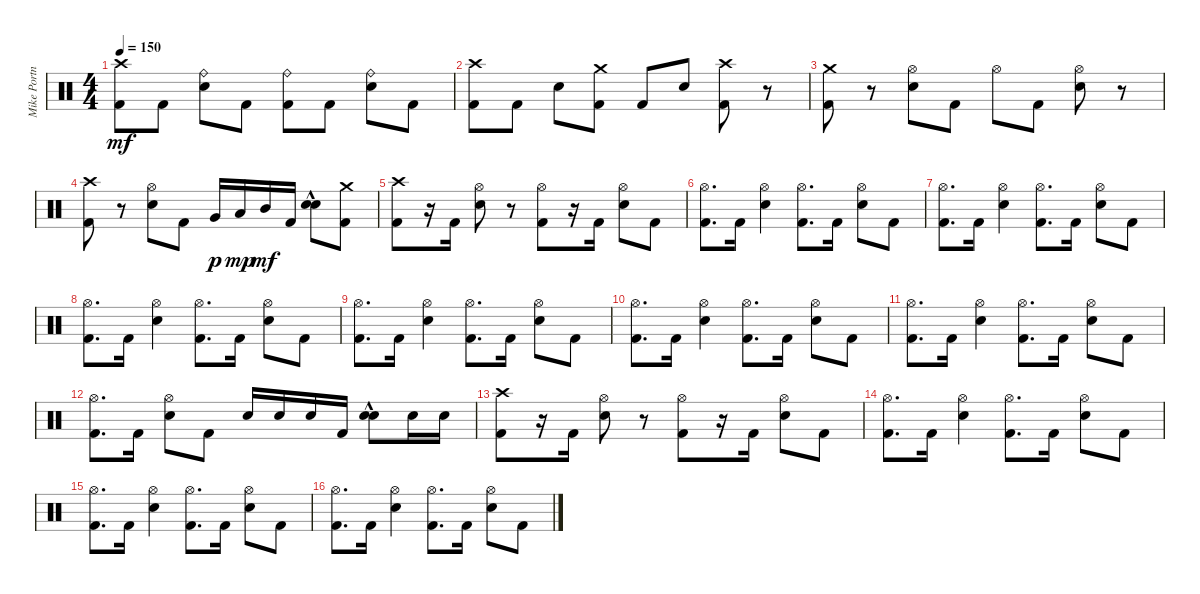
\track ("Mike Portnoy: Drums" "Mike Portn") {instrument percussion}
\staff {score}
\articulation defaults
\ts (4 4)
\tempo 150
\clef neutral
\ks c
("Kick (hit) 2" "Crash high (hit)").8{dy mf} "Kick (hit) 2".8 ("Electric Snare (hit)" "Ride (bell)").8 "Kick (hit) 2".8 ("Kick (hit) 2" "Ride (bell)").8 "Kick (hit) 2".8 ("Electric Snare (hit)" "Ride (bell)").8 "Kick (hit) 2".8 |
("Kick (hit) 2" "Crash high (hit)").8 "Kick (hit) 2".8 "Electric Snare (hit)".8 ("Kick (hit) 2" "Crash medium (hit)").8 "Kick (hit) 2".8 "Electric Snare (hit)".8 ("Kick (hit) 2" "Crash high (hit)").8 r.8 |
("Kick (hit) 2" "Crash medium (hit)").8 r.8 ("Electric Snare (hit)" "Hi-Hat (open)").8 "Kick (hit) 2".8 "Hi-Hat (open)".8 "Kick (hit) 2".8 ("Electric Snare (hit)" "Hi-Hat (open)").8 r.8 |
("Kick (hit) 2" "Crash high (hit)").8 r.8 ("Electric Snare (hit)" "Hi-Hat (open)").8 "Kick (hit) 2".8 "Very Low Tom (hit)".16{dy p} "Low Tom (hit)".16{dy mp} "Mid Tom (hit)".16{dy mf} "Kick (hit) 2".16 ("Electric Snare (hit)" "Electric Snare (hit)"{hac}).8 ("Kick (hit) 2" "Crash medium (hit)").8 |
("Kick (hit) 2" "Crash high (hit)").8 r.16 "Kick (hit) 2".16 ("Electric Snare (hit)" "Hi-Hat (open)").8 r.8 ("Kick (hit) 2" "Hi-Hat (open)").8 r.16 "Kick (hit) 2".16 ("Electric Snare (hit)" "Hi-Hat (open)").8 "Kick (hit) 2".8 |
("Kick (hit) 2" "Hi-Hat (open)").8{d} "Kick (hit) 2".16 ("Electric Snare (hit)" "Hi-Hat (open)").4 ("Kick (hit) 2" "Hi-Hat (open)").8{d} "Kick (hit) 2".16 ("Electric Snare (hit)" "Hi-Hat (open)").8 "Kick (hit) 2".8 |
("Kick (hit) 2" "Hi-Hat (open)").8{d} "Kick (hit) 2".16 ("Electric Snare (hit)" "Hi-Hat (open)").4 ("Kick (hit) 2" "Hi-Hat (open)").8{d} "Kick (hit) 2".16 ("Electric Snare (hit)" "Hi-Hat (open)").8 "Kick (hit) 2".8 |
("Kick (hit) 2" "Hi-Hat (open)").8{d} "Kick (hit) 2".16 ("Electric Snare (hit)" "Hi-Hat (open)").4 ("Kick (hit) 2" "Hi-Hat (open)").8{d} "Kick (hit) 2".16 ("Electric Snare (hit)" "Hi-Hat (open)").8 "Kick (hit) 2".8 |
("Kick (hit) 2" "Hi-Hat (open)").8{d} "Kick (hit) 2".16 ("Electric Snare (hit)" "Hi-Hat (open)").4 ("Kick (hit) 2" "Hi-Hat (open)").8{d} "Kick (hit) 2".16 ("Electric Snare (hit)" "Hi-Hat (open)").8 "Kick (hit) 2".8 |
("Kick (hit) 2" "Hi-Hat (open)").8{d} "Kick (hit) 2".16 ("Electric Snare (hit)" "Hi-Hat (open)").4 ("Kick (hit) 2" "Hi-Hat (open)").8{d} "Kick (hit) 2".16 ("Electric Snare (hit)" "Hi-Hat (open)").8 "Kick (hit) 2".8 |
("Kick (hit) 2" "Hi-Hat (open)").8{d} "Kick (hit) 2".16 ("Electric Snare (hit)" "Hi-Hat (open)").4 ("Kick (hit) 2" "Hi-Hat (open)").8{d} "Kick (hit) 2".16 ("Electric Snare (hit)" "Hi-Hat (open)").8 "Kick (hit) 2".8 |
("Kick (hit) 2" "Hi-Hat (open)").8{d} "Kick (hit) 2".16 ("Electric Snare (hit)" "Hi-Hat (open)").8 "Kick (hit) 2".8 "Electric Snare (hit)".16 "Electric Snare (hit)".16 "Electric Snare (hit)".16 "Kick (hit) 2".16 ("Electric Snare (hit)" "Electric Snare (hit)"{hac}).8 "Electric Snare (hit)".16 "Electric Snare (hit)".16 |
("Kick (hit) 2" "Crash high (hit)").8 r.16 "Kick (hit) 2".16 ("Electric Snare (hit)" "Hi-Hat (open)").8 r.8 ("Kick (hit) 2" "Hi-Hat (open)").8 r.16 "Kick (hit) 2".16 ("Electric Snare (hit)" "Hi-Hat (open)").8 "Kick (hit) 2".8 |
("Kick (hit) 2" "Hi-Hat (open)").8{d} "Kick (hit) 2".16 ("Electric Snare (hit)" "Hi-Hat (open)").4 ("Kick (hit) 2" "Hi-Hat (open)").8{d} "Kick (hit) 2".16 ("Electric Snare (hit)" "Hi-Hat (open)").8 "Kick (hit) 2".8 |
("Kick (hit) 2" "Hi-Hat (open)").8{d} "Kick (hit) 2".16 ("Electric Snare (hit)" "Hi-Hat (open)").4 ("Kick (hit) 2" "Hi-Hat (open)").8{d} "Kick (hit) 2".16 ("Electric Snare (hit)" "Hi-Hat (open)").8 "Kick (hit) 2".8 |
("Kick (hit) 2" "Hi-Hat (open)").8{d} "Kick (hit) 2".16 ("Electric Snare (hit)" "Hi-Hat (open)").4 ("Kick (hit) 2" "Hi-Hat (open)").8{d} "Kick (hit) 2".16 ("Electric Snare (hit)" "Hi-Hat (open)").8 "Kick (hit) 2".8
